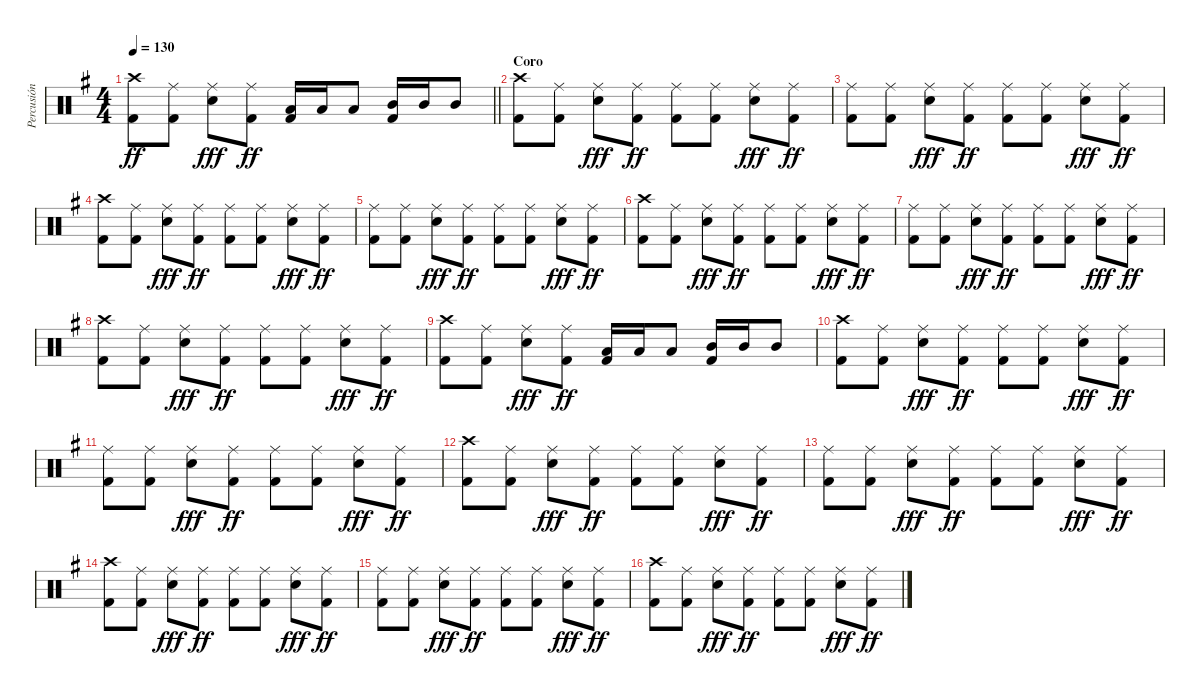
\track ("Percusión" "Percusión") {instrument percussion}
\staff {score}
\articulation defaults
\ts (4 4)
\tempo 130
\clef neutral
\barLineRight lightlight
\ks g
("Crash high (hit)" "Kick (hit) 2").8{dy ff} ("Ride (middle)" "Kick (hit) 2").8 ("Ride (middle)" "Snare (hit) 2").8{dy fff} ("Ride (middle)" "Kick (hit) 2").8{dy ff} ("Low Tom (hit)" "Kick (hit) 2").16 "Low Tom (hit)".16 "Low Tom (hit)".8 ("Mid Tom (hit)" "Kick (hit) 2").16 "Mid Tom (hit)".16 "Mid Tom (hit)".8 |
\section ("" "Coro")
("Crash high (hit)" "Kick (hit) 2").8 ("Ride (middle)" "Kick (hit) 2").8 ("Ride (middle)" "Snare (hit) 2").8{dy fff} ("Ride (middle)" "Kick (hit) 2").8{dy ff} ("Ride (middle)" "Kick (hit) 2").8 ("Ride (middle)" "Kick (hit) 2").8 ("Ride (middle)" "Snare (hit) 2").8{dy fff} ("Ride (middle)" "Kick (hit) 2").8{dy ff} |
("Ride (middle)" "Kick (hit) 2").8 ("Ride (middle)" "Kick (hit) 2").8 ("Ride (middle)" "Snare (hit) 2").8{dy fff} ("Ride (middle)" "Kick (hit) 2").8{dy ff} ("Ride (middle)" "Kick (hit) 2").8 ("Ride (middle)" "Kick (hit) 2").8 ("Ride (middle)" "Snare (hit) 2").8{dy fff} ("Ride (middle)" "Kick (hit) 2").8{dy ff} |
("Crash high (hit)" "Kick (hit) 2").8 ("Ride (middle)" "Kick (hit) 2").8 ("Ride (middle)" "Snare (hit) 2").8{dy fff} ("Ride (middle)" "Kick (hit) 2").8{dy ff} ("Ride (middle)" "Kick (hit) 2").8 ("Ride (middle)" "Kick (hit) 2").8 ("Ride (middle)" "Snare (hit) 2").8{dy fff} ("Ride (middle)" "Kick (hit) 2").8{dy ff} |
("Ride (middle)" "Kick (hit) 2").8 ("Ride (middle)" "Kick (hit) 2").8 ("Ride (middle)" "Snare (hit) 2").8{dy fff} ("Ride (middle)" "Kick (hit) 2").8{dy ff} ("Ride (middle)" "Kick (hit) 2").8 ("Ride (middle)" "Kick (hit) 2").8 ("Ride (middle)" "Snare (hit) 2").8{dy fff} ("Ride (middle)" "Kick (hit) 2").8{dy ff} |
("Crash high (hit)" "Kick (hit) 2").8 ("Ride (middle)" "Kick (hit) 2").8 ("Ride (middle)" "Snare (hit) 2").8{dy fff} ("Ride (middle)" "Kick (hit) 2").8{dy ff} ("Ride (middle)" "Kick (hit) 2").8 ("Ride (middle)" "Kick (hit) 2").8 ("Ride (middle)" "Snare (hit) 2").8{dy fff} ("Ride (middle)" "Kick (hit) 2").8{dy ff} |
("Ride (middle)" "Kick (hit) 2").8 ("Ride (middle)" "Kick (hit) 2").8 ("Ride (middle)" "Snare (hit) 2").8{dy fff} ("Ride (middle)" "Kick (hit) 2").8{dy ff} ("Ride (middle)" "Kick (hit) 2").8 ("Ride (middle)" "Kick (hit) 2").8 ("Ride (middle)" "Snare (hit) 2").8{dy fff} ("Ride (middle)" "Kick (hit) 2").8{dy ff} |
("Crash high (hit)" "Kick (hit) 2").8 ("Ride (middle)" "Kick (hit) 2").8 ("Ride (middle)" "Snare (hit) 2").8{dy fff} ("Ride (middle)" "Kick (hit) 2").8{dy ff} ("Ride (middle)" "Kick (hit) 2").8 ("Ride (middle)" "Kick (hit) 2").8 ("Ride (middle)" "Snare (hit) 2").8{dy fff} ("Ride (middle)" "Kick (hit) 2").8{dy ff} |
("Crash high (hit)" "Kick (hit) 2").8 ("Ride (middle)" "Kick (hit) 2").8 ("Ride (middle)" "Snare (hit) 2").8{dy fff} ("Ride (middle)" "Kick (hit) 2").8{dy ff} ("Low Tom (hit)" "Kick (hit) 2").16 "Low Tom (hit)".16 "Low Tom (hit)".8 ("Mid Tom (hit)" "Kick (hit) 2").16 "Mid Tom (hit)".16 "Mid Tom (hit)".8 |
("Crash high (hit)" "Kick (hit) 2").8 ("Ride (middle)" "Kick (hit) 2").8 ("Ride (middle)" "Snare (hit) 2").8{dy fff} ("Ride (middle)" "Kick (hit) 2").8{dy ff} ("Ride (middle)" "Kick (hit) 2").8 ("Ride (middle)" "Kick (hit) 2").8 ("Ride (middle)" "Snare (hit) 2").8{dy fff} ("Ride (middle)" "Kick (hit) 2").8{dy ff} |
("Ride (middle)" "Kick (hit) 2").8 ("Ride (middle)" "Kick (hit) 2").8 ("Ride (middle)" "Snare (hit) 2").8{dy fff} ("Ride (middle)" "Kick (hit) 2").8{dy ff} ("Ride (middle)" "Kick (hit) 2").8 ("Ride (middle)" "Kick (hit) 2").8 ("Ride (middle)" "Snare (hit) 2").8{dy fff} ("Ride (middle)" "Kick (hit) 2").8{dy ff} |
("Crash high (hit)" "Kick (hit) 2").8 ("Ride (middle)" "Kick (hit) 2").8 ("Ride (middle)" "Snare (hit) 2").8{dy fff} ("Ride (middle)" "Kick (hit) 2").8{dy ff} ("Ride (middle)" "Kick (hit) 2").8 ("Ride (middle)" "Kick (hit) 2").8 ("Ride (middle)" "Snare (hit) 2").8{dy fff} ("Ride (middle)" "Kick (hit) 2").8{dy ff} |
("Ride (middle)" "Kick (hit) 2").8 ("Ride (middle)" "Kick (hit) 2").8 ("Ride (middle)" "Snare (hit) 2").8{dy fff} ("Ride (middle)" "Kick (hit) 2").8{dy ff} ("Ride (middle)" "Kick (hit) 2").8 ("Ride (middle)" "Kick (hit) 2").8 ("Ride (middle)" "Snare (hit) 2").8{dy fff} ("Ride (middle)" "Kick (hit) 2").8{dy ff} |
("Crash high (hit)" "Kick (hit) 2").8 ("Ride (middle)" "Kick (hit) 2").8 ("Ride (middle)" "Snare (hit) 2").8{dy fff} ("Ride (middle)" "Kick (hit) 2").8{dy ff} ("Ride (middle)" "Kick (hit) 2").8 ("Ride (middle)" "Kick (hit) 2").8 ("Ride (middle)" "Snare (hit) 2").8{dy fff} ("Ride (middle)" "Kick (hit) 2").8{dy ff} |
("Ride (middle)" "Kick (hit) 2").8 ("Ride (middle)" "Kick (hit) 2").8 ("Ride (middle)" "Snare (hit) 2").8{dy fff} ("Ride (middle)" "Kick (hit) 2").8{dy ff} ("Ride (middle)" "Kick (hit) 2").8 ("Ride (middle)" "Kick (hit) 2").8 ("Ride (middle)" "Snare (hit) 2").8{dy fff} ("Ride (middle)" "Kick (hit) 2").8{dy ff} |
("Crash high (hit)" "Kick (hit) 2").8 ("Ride (middle)" "Kick (hit) 2").8 ("Ride (middle)" "Snare (hit) 2").8{dy fff} ("Ride (middle)" "Kick (hit) 2").8{dy ff} ("Ride (middle)" "Kick (hit) 2").8 ("Ride (middle)" "Kick (hit) 2").8 ("Ride (middle)" "Snare (hit) 2").8{dy fff} ("Ride (middle)" "Kick (hit) 2").8{dy ff}
